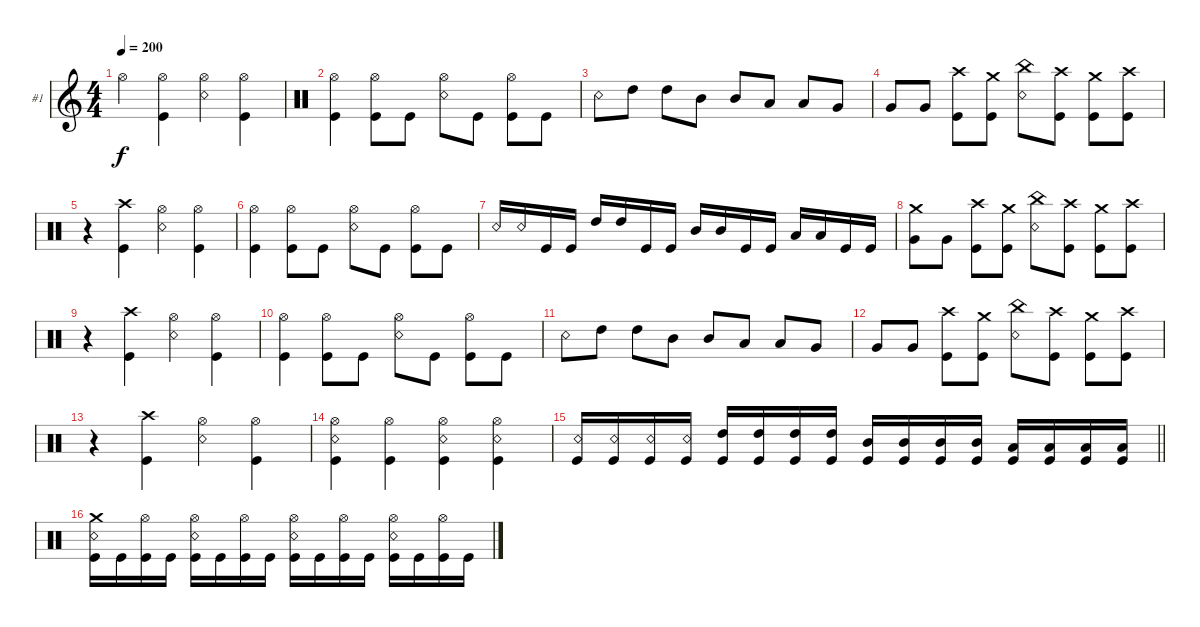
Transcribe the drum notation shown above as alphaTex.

\bracketExtendMode groupsimilarinstruments
\firstSystemTrackNameOrientation horizontal
\otherSystemsTrackNameOrientation horizontal
\track ("Joey Jordison" "#1") {instrument percussion}
\staff {score}
\articulation defaults
\ts (4 4)
\tempo 200
\clef g2
\ks c "Hi-Hat (open)".4{dy f}
("Hi-Hat (open)" "Kick (hit)").4 ("Hi-Hat (open)" "Snare (rim shot)").4 ("Hi-Hat (open)" "Kick (hit)").4 |
\clef neutral
("Kick (hit)" "Hi-Hat (open)").4 ("Hi-Hat (open)" "Kick (hit)").8 "Kick (hit)".8 ("Hi-Hat (open)" "Snare (rim shot)").8 "Kick (hit)".8 ("Hi-Hat (open)" "Kick (hit)").8 "Kick (hit)".8 |
"Snare (rim shot)".8 "High Tom (hit)".8 "High Tom (hit)".8 "Mid Tom (hit)".8 "Mid Tom (hit)".8 "Low Tom (hit)".8 "Low Tom (hit)".8 "Very Low Tom (hit)".8 |
"Very Low Tom (hit)".8 "Very Low Tom (hit)".8 ("Kick (hit)" "Crash high (hit)").8 ("Kick (hit)" "Crash medium (hit)").8 ("Snare (rim shot)" "China (hit)").8 ("Kick (hit)" "Crash high (hit)").8 ("Kick (hit)" "Crash medium (hit)").8 ("Kick (hit)" "Crash high (hit)").8 |
r.4 ("Kick (hit)" "Crash high (hit)").4 ("Hi-Hat (open)" "Snare (rim shot)").4 ("Hi-Hat (open)" "Kick (hit)").4 |
("Kick (hit)" "Hi-Hat (open)").4 ("Hi-Hat (open)" "Kick (hit)").8 "Kick (hit)".8 ("Hi-Hat (open)" "Snare (rim shot)").8 "Kick (hit)".8 ("Hi-Hat (open)" "Kick (hit)").8 "Kick (hit)".8 |
"Snare (rim shot)".16 "Snare (rim shot)".16 "Kick (hit)".16 "Kick (hit)".16 "High Tom (hit)".16 "High Tom (hit)".16 "Kick (hit)".16 "Kick (hit)".16 "Mid Tom (hit)".16 "Mid Tom (hit)".16 "Kick (hit)".16 "Kick (hit)".16 "Low Tom (hit)".16 "Low Tom (hit)".16 "Kick (hit)".16 "Kick (hit)".16 |
("Very Low Tom (hit)" "Crash medium (hit)").8 "Very Low Tom (hit)".8 ("Kick (hit)" "Crash high (hit)").8 ("Kick (hit)" "Crash medium (hit)").8 ("Snare (rim shot)" "China (hit)").8 ("Kick (hit)" "Crash high (hit)").8 ("Kick (hit)" "Crash medium (hit)").8 ("Kick (hit)" "Crash high (hit)").8 |
r.4 ("Kick (hit)" "Crash high (hit)").4 ("Hi-Hat (open)" "Snare (rim shot)").4 ("Hi-Hat (open)" "Kick (hit)").4 |
("Kick (hit)" "Hi-Hat (open)").4 ("Hi-Hat (open)" "Kick (hit)").8 "Kick (hit)".8 ("Hi-Hat (open)" "Snare (rim shot)").8 "Kick (hit)".8 ("Hi-Hat (open)" "Kick (hit)").8 "Kick (hit)".8 |
"Snare (rim shot)".8 "High Tom (hit)".8 "High Tom (hit)".8 "Mid Tom (hit)".8 "Mid Tom (hit)".8 "Low Tom (hit)".8 "Low Tom (hit)".8 "Very Low Tom (hit)".8 |
"Very Low Tom (hit)".8 "Very Low Tom (hit)".8 ("Kick (hit)" "Crash high (hit)").8 ("Kick (hit)" "Crash medium (hit)").8 ("Snare (rim shot)" "China (hit)").8 ("Kick (hit)" "Crash high (hit)").8 ("Kick (hit)" "Crash medium (hit)").8 ("Kick (hit)" "Crash high (hit)").8 |
r.4 ("Kick (hit)" "Crash high (hit)").4 ("Hi-Hat (open)" "Snare (rim shot)").4 ("Hi-Hat (open)" "Kick (hit)").4 |
("Kick (hit)" "Hi-Hat (open)" "Snare (rim shot)").4 ("Hi-Hat (open)" "Kick (hit)").4 ("Hi-Hat (open)" "Snare (rim shot)" "Kick (hit)").4 ("Hi-Hat (open)" "Kick (hit)" "Snare (rim shot)").4 |
\barLineRight lightlight
("Snare (rim shot)" "Kick (hit)").16 ("Snare (rim shot)" "Kick (hit)").16 ("Kick (hit)" "Snare (rim shot)").16 ("Kick (hit)" "Snare (rim shot)").16 ("High Tom (hit)" "Kick (hit)").16 ("High Tom (hit)" "Kick (hit)").16 ("Kick (hit)" "High Tom (hit)").16 ("Kick (hit)" "High Tom (hit)").16 ("Mid Tom (hit)" "Kick (hit)").16 ("Mid Tom (hit)" "Kick (hit)").16 ("Kick (hit)" "Mid Tom (hit)").16 ("Kick (hit)" "Mid Tom (hit)").16 ("Low Tom (hit)" "Kick (hit)").16 ("Low Tom (hit)" "Kick (hit)").16 ("Kick (hit)" "Low Tom (hit)").16 ("Kick (hit)" "Low Tom (hit)").16 |
("Kick (hit)" "Snare (rim shot)" "Crash medium (hit)").16 "Kick (hit)".16 ("Kick (hit)" "Hi-Hat (open)").16 "Kick (hit)".16 ("Kick (hit)" "Snare (rim shot)" "Hi-Hat (open)").16 "Kick (hit)".16 ("Kick (hit)" "Hi-Hat (open)").16 "Kick (hit)".16 ("Kick (hit)" "Snare (rim shot)" "Hi-Hat (open)").16 "Kick (hit)".16 ("Kick (hit)" "Hi-Hat (open)").16 "Kick (hit)".16 ("Kick (hit)" "Snare (rim shot)" "Hi-Hat (open)").16 "Kick (hit)".16 ("Kick (hit)" "Hi-Hat (open)").16 "Kick (hit)".16
